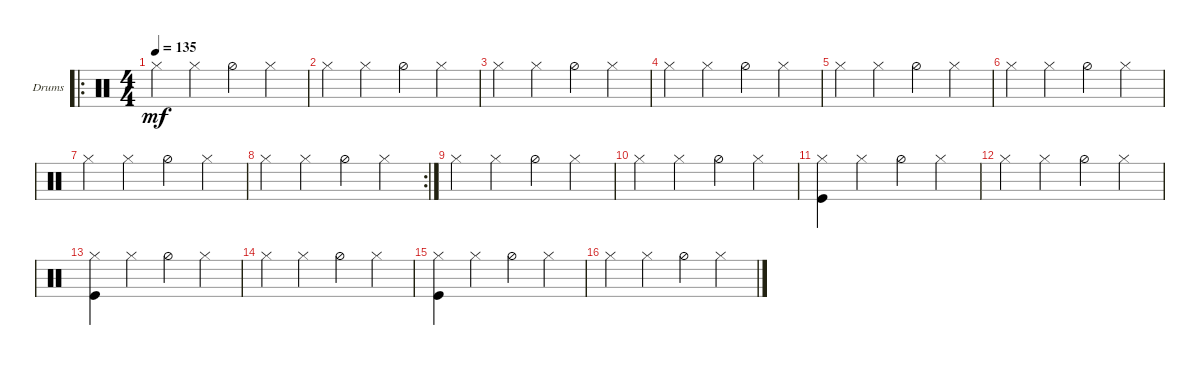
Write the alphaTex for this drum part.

\defaultSystemsLayout 4
\bracketExtendMode groupsimilarinstruments
\firstSystemTrackNameOrientation horizontal
\otherSystemsTrackNameOrientation horizontal
\track ("Drumkit" "Drums") {instrument percussion}
\staff {score}
\articulation defaults
\ro
\ts (4 4)
\tempo 135
\clef neutral
\ks c "Hi-Hat (closed)".4{dy mf} "Hi-Hat (closed)".4 "Hi-Hat (half)".4 "Hi-Hat (closed)".4
|
"Hi-Hat (closed)".4 "Hi-Hat (closed)".4 "Hi-Hat (half)".4 "Hi-Hat (closed)".4 |
"Hi-Hat (closed)".4 "Hi-Hat (closed)".4 "Hi-Hat (half)".4 "Hi-Hat (closed)".4 |
"Hi-Hat (closed)".4 "Hi-Hat (closed)".4 "Hi-Hat (half)".4 "Hi-Hat (closed)".4 |
"Hi-Hat (closed)".4 "Hi-Hat (closed)".4 "Hi-Hat (half)".4 "Hi-Hat (closed)".4 |
"Hi-Hat (closed)".4 "Hi-Hat (closed)".4 "Hi-Hat (half)".4 "Hi-Hat (closed)".4 |
"Hi-Hat (closed)".4 "Hi-Hat (closed)".4 "Hi-Hat (half)".4 "Hi-Hat (closed)".4 |
\rc 2 "Hi-Hat (closed)".4 "Hi-Hat (closed)".4 "Hi-Hat (half)".4 "Hi-Hat (closed)".4
|
"Hi-Hat (closed)".4 "Hi-Hat (closed)".4 "Hi-Hat (half)".4 "Hi-Hat (closed)".4 |
"Hi-Hat (closed)".4 "Hi-Hat (closed)".4 "Hi-Hat (half)".4 "Hi-Hat (closed)".4 |
("Hi-Hat (closed)" "Kick (hit)").4 "Hi-Hat (closed)".4 "Hi-Hat (half)".4 "Hi-Hat (closed)".4 |
"Hi-Hat (closed)".4 "Hi-Hat (closed)".4 "Hi-Hat (half)".4 "Hi-Hat (closed)".4 |
("Hi-Hat (closed)" "Kick (hit)").4 "Hi-Hat (closed)".4 "Hi-Hat (half)".4 "Hi-Hat (closed)".4 |
"Hi-Hat (closed)".4 "Hi-Hat (closed)".4 "Hi-Hat (half)".4 "Hi-Hat (closed)".4 |
("Hi-Hat (closed)" "Kick (hit)").4 "Hi-Hat (closed)".4 "Hi-Hat (half)".4 "Hi-Hat (closed)".4 |
"Hi-Hat (closed)".4 "Hi-Hat (closed)".4 "Hi-Hat (half)".4 "Hi-Hat (closed)".4
